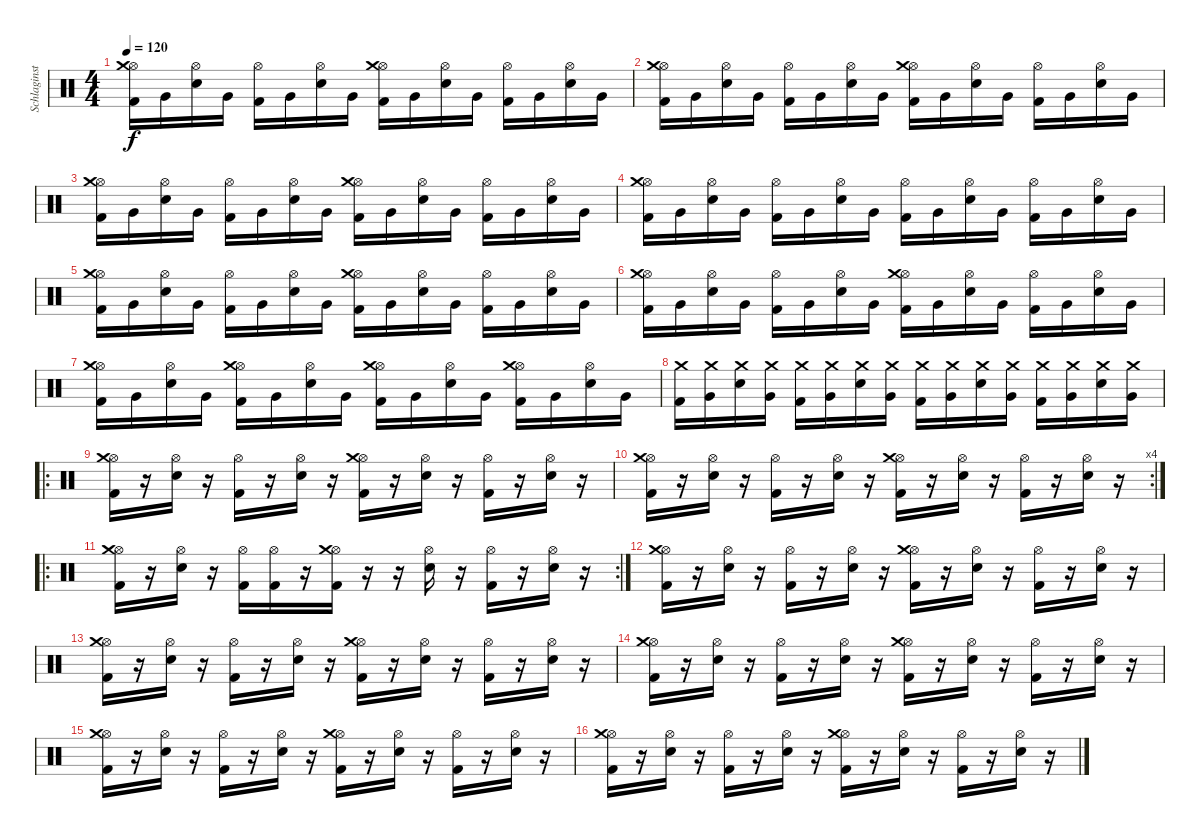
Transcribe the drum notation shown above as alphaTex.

\track ("Schlaginstrumente - Auswahl" "Schlaginst") {instrument percussion}
\staff {score}
\articulation defaults
\ts (4 4)
\tempo 120
\clef neutral
\ks c
("Kick (hit) 2" "Hi-Hat (open)" "Crash medium (hit)").16{dy f} "Very Low Tom (hit)".16 ("Electric Snare (hit)" "Hi-Hat (open)").16 "Very Low Tom (hit)".16 ("Kick (hit) 2" "Hi-Hat (open)").16 "Very Low Tom (hit)".16 ("Electric Snare (hit)" "Hi-Hat (open)").16 "Very Low Tom (hit)".16 ("Kick (hit) 2" "Hi-Hat (open)" "Crash medium (hit)").16 "Very Low Tom (hit)".16 ("Electric Snare (hit)" "Hi-Hat (open)").16 "Very Low Tom (hit)".16 ("Kick (hit) 2" "Hi-Hat (open)").16 "Very Low Tom (hit)".16 ("Electric Snare (hit)" "Hi-Hat (open)").16 "Very Low Tom (hit)".16 |
("Kick (hit) 2" "Hi-Hat (open)" "Crash medium (hit)").16 "Very Low Tom (hit)".16 ("Electric Snare (hit)" "Hi-Hat (open)").16 "Very Low Tom (hit)".16 ("Kick (hit) 2" "Hi-Hat (open)").16 "Very Low Tom (hit)".16 ("Electric Snare (hit)" "Hi-Hat (open)").16 "Very Low Tom (hit)".16 ("Kick (hit) 2" "Hi-Hat (open)" "Crash medium (hit)").16 "Very Low Tom (hit)".16 ("Electric Snare (hit)" "Hi-Hat (open)").16 "Very Low Tom (hit)".16 ("Kick (hit) 2" "Hi-Hat (open)").16 "Very Low Tom (hit)".16 ("Electric Snare (hit)" "Hi-Hat (open)").16 "Very Low Tom (hit)".16 |
("Kick (hit) 2" "Hi-Hat (open)" "Crash medium (hit)").16 "Very Low Tom (hit)".16 ("Electric Snare (hit)" "Hi-Hat (open)").16 "Very Low Tom (hit)".16 ("Kick (hit) 2" "Hi-Hat (open)").16 "Very Low Tom (hit)".16 ("Electric Snare (hit)" "Hi-Hat (open)").16 "Very Low Tom (hit)".16 ("Kick (hit) 2" "Hi-Hat (open)" "Crash medium (hit)").16 "Very Low Tom (hit)".16 ("Electric Snare (hit)" "Hi-Hat (open)").16 "Very Low Tom (hit)".16 ("Kick (hit) 2" "Hi-Hat (open)").16 "Very Low Tom (hit)".16 ("Electric Snare (hit)" "Hi-Hat (open)").16 "Very Low Tom (hit)".16 |
("Kick (hit) 2" "Hi-Hat (open)" "Crash medium (hit)").16 "Very Low Tom (hit)".16 ("Electric Snare (hit)" "Hi-Hat (open)").16 "Very Low Tom (hit)".16 ("Kick (hit) 2" "Hi-Hat (open)").16 "Very Low Tom (hit)".16 ("Electric Snare (hit)" "Hi-Hat (open)").16 "Very Low Tom (hit)".16 ("Kick (hit) 2" "Hi-Hat (open)").16 "Very Low Tom (hit)".16 ("Electric Snare (hit)" "Hi-Hat (open)").16 "Very Low Tom (hit)".16 ("Kick (hit) 2" "Hi-Hat (open)").16 "Very Low Tom (hit)".16 ("Electric Snare (hit)" "Hi-Hat (open)").16 "Very Low Tom (hit)".16 |
("Kick (hit) 2" "Hi-Hat (open)" "Crash medium (hit)").16 "Very Low Tom (hit)".16 ("Electric Snare (hit)" "Hi-Hat (open)").16 "Very Low Tom (hit)".16 ("Kick (hit) 2" "Hi-Hat (open)").16 "Very Low Tom (hit)".16 ("Electric Snare (hit)" "Hi-Hat (open)").16 "Very Low Tom (hit)".16 ("Kick (hit) 2" "Hi-Hat (open)" "Crash medium (hit)").16 "Very Low Tom (hit)".16 ("Electric Snare (hit)" "Hi-Hat (open)").16 "Very Low Tom (hit)".16 ("Kick (hit) 2" "Hi-Hat (open)").16 "Very Low Tom (hit)".16 ("Electric Snare (hit)" "Hi-Hat (open)").16 "Very Low Tom (hit)".16 |
("Kick (hit) 2" "Hi-Hat (open)" "Crash medium (hit)").16 "Very Low Tom (hit)".16 ("Electric Snare (hit)" "Hi-Hat (open)").16 "Very Low Tom (hit)".16 ("Kick (hit) 2" "Hi-Hat (open)").16 "Very Low Tom (hit)".16 ("Electric Snare (hit)" "Hi-Hat (open)").16 "Very Low Tom (hit)".16 ("Kick (hit) 2" "Hi-Hat (open)" "Crash medium (hit)").16 "Very Low Tom (hit)".16 ("Electric Snare (hit)" "Hi-Hat (open)").16 "Very Low Tom (hit)".16 ("Kick (hit) 2" "Hi-Hat (open)").16 "Very Low Tom (hit)".16 ("Electric Snare (hit)" "Hi-Hat (open)").16 "Very Low Tom (hit)".16 |
("Kick (hit) 2" "Hi-Hat (open)" "Crash medium (hit)").16 "Very Low Tom (hit)".16 ("Electric Snare (hit)" "Hi-Hat (open)").16 "Very Low Tom (hit)".16 ("Kick (hit) 2" "Hi-Hat (open)" "Crash medium (hit)").16 "Very Low Tom (hit)".16 ("Electric Snare (hit)" "Hi-Hat (open)").16 "Very Low Tom (hit)".16 ("Kick (hit) 2" "Hi-Hat (open)" "Crash medium (hit)").16 "Very Low Tom (hit)".16 ("Electric Snare (hit)" "Hi-Hat (open)").16 "Very Low Tom (hit)".16 ("Kick (hit) 2" "Hi-Hat (open)" "Crash medium (hit)").16 "Very Low Tom (hit)".16 ("Electric Snare (hit)" "Hi-Hat (open)").16 "Very Low Tom (hit)".16 |
("Kick (hit) 2" "Crash medium (hit)").16 ("Very Low Tom (hit)" "Crash medium (hit)").16 ("Electric Snare (hit)" "Crash medium (hit)").16 ("Very Low Tom (hit)" "Crash medium (hit)").16 ("Kick (hit) 2" "Crash medium (hit)").16 ("Very Low Tom (hit)" "Crash medium (hit)").16 ("Electric Snare (hit)" "Crash medium (hit)").16 ("Very Low Tom (hit)" "Crash medium (hit)").16 ("Kick (hit) 2" "Crash medium (hit)").16 ("Very Low Tom (hit)" "Crash medium (hit)").16 ("Electric Snare (hit)" "Crash medium (hit)").16 ("Very Low Tom (hit)" "Crash medium (hit)").16 ("Kick (hit) 2" "Crash medium (hit)").16 ("Very Low Tom (hit)" "Crash medium (hit)").16 ("Electric Snare (hit)" "Crash medium (hit)").16 ("Very Low Tom (hit)" "Crash medium (hit)").16 |
\ro
("Kick (hit) 2" "Hi-Hat (open)" "Crash medium (hit)").16 r.16 ("Electric Snare (hit)" "Hi-Hat (open)").16 r.16 ("Kick (hit) 2" "Hi-Hat (open)").16 r.16 ("Electric Snare (hit)" "Hi-Hat (open)").16 r.16 ("Kick (hit) 2" "Hi-Hat (open)" "Crash medium (hit)").16 r.16 ("Electric Snare (hit)" "Hi-Hat (open)").16 r.16 ("Kick (hit) 2" "Hi-Hat (open)").16 r.16 ("Electric Snare (hit)" "Hi-Hat (open)").16 r.16 |
\rc 4
("Kick (hit) 2" "Hi-Hat (open)" "Crash medium (hit)").16 r.16 ("Electric Snare (hit)" "Hi-Hat (open)").16 r.16 ("Kick (hit) 2" "Hi-Hat (open)").16 r.16 ("Electric Snare (hit)" "Hi-Hat (open)").16 r.16 ("Kick (hit) 2" "Hi-Hat (open)" "Crash medium (hit)").16 r.16 ("Electric Snare (hit)" "Hi-Hat (open)").16 r.16 ("Kick (hit) 2" "Hi-Hat (open)").16 r.16 ("Electric Snare (hit)" "Hi-Hat (open)").16 r.16 |
\ro
\rc 2
("Kick (hit) 2" "Hi-Hat (open)" "Crash medium (hit)").16 r.16 ("Electric Snare (hit)" "Hi-Hat (open)").16 r.16 ("Kick (hit) 2" "Hi-Hat (open)").16 ("Kick (hit) 2" "Hi-Hat (open)").16 r.16 ("Kick (hit) 2" "Hi-Hat (open)" "Crash medium (hit)").16 r.16 r.16 ("Electric Snare (hit)" "Hi-Hat (open)").16 r.16 ("Kick (hit) 2" "Hi-Hat (open)").16 r.16 ("Electric Snare (hit)" "Hi-Hat (open)").16 r.16 |
("Kick (hit) 2" "Hi-Hat (open)" "Crash medium (hit)").16 r.16 ("Electric Snare (hit)" "Hi-Hat (open)").16 r.16 ("Kick (hit) 2" "Hi-Hat (open)").16 r.16 ("Electric Snare (hit)" "Hi-Hat (open)").16 r.16 ("Kick (hit) 2" "Hi-Hat (open)" "Crash medium (hit)").16 r.16 ("Electric Snare (hit)" "Hi-Hat (open)").16 r.16 ("Kick (hit) 2" "Hi-Hat (open)").16 r.16 ("Electric Snare (hit)" "Hi-Hat (open)").16 r.16 |
("Kick (hit) 2" "Hi-Hat (open)" "Crash medium (hit)").16 r.16 ("Electric Snare (hit)" "Hi-Hat (open)").16 r.16 ("Kick (hit) 2" "Hi-Hat (open)").16 r.16 ("Electric Snare (hit)" "Hi-Hat (open)").16 r.16 ("Kick (hit) 2" "Hi-Hat (open)" "Crash medium (hit)").16 r.16 ("Electric Snare (hit)" "Hi-Hat (open)").16 r.16 ("Kick (hit) 2" "Hi-Hat (open)").16 r.16 ("Electric Snare (hit)" "Hi-Hat (open)").16 r.16 |
("Kick (hit) 2" "Hi-Hat (open)" "Crash medium (hit)").16 r.16 ("Electric Snare (hit)" "Hi-Hat (open)").16 r.16 ("Kick (hit) 2" "Hi-Hat (open)").16 r.16 ("Electric Snare (hit)" "Hi-Hat (open)").16 r.16 ("Kick (hit) 2" "Hi-Hat (open)" "Crash medium (hit)").16 r.16 ("Electric Snare (hit)" "Hi-Hat (open)").16 r.16 ("Kick (hit) 2" "Hi-Hat (open)").16 r.16 ("Electric Snare (hit)" "Hi-Hat (open)").16 r.16 |
("Kick (hit) 2" "Hi-Hat (open)" "Crash medium (hit)").16 r.16 ("Electric Snare (hit)" "Hi-Hat (open)").16 r.16 ("Kick (hit) 2" "Hi-Hat (open)").16 r.16 ("Electric Snare (hit)" "Hi-Hat (open)").16 r.16 ("Kick (hit) 2" "Hi-Hat (open)" "Crash medium (hit)").16 r.16 ("Electric Snare (hit)" "Hi-Hat (open)").16 r.16 ("Kick (hit) 2" "Hi-Hat (open)").16 r.16 ("Electric Snare (hit)" "Hi-Hat (open)").16 r.16 |
("Kick (hit) 2" "Hi-Hat (open)" "Crash medium (hit)").16 r.16 ("Electric Snare (hit)" "Hi-Hat (open)").16 r.16 ("Kick (hit) 2" "Hi-Hat (open)").16 r.16 ("Electric Snare (hit)" "Hi-Hat (open)").16 r.16 ("Kick (hit) 2" "Hi-Hat (open)" "Crash medium (hit)").16 r.16 ("Electric Snare (hit)" "Hi-Hat (open)").16 r.16 ("Kick (hit) 2" "Hi-Hat (open)").16 r.16 ("Electric Snare (hit)" "Hi-Hat (open)").16 r.16
